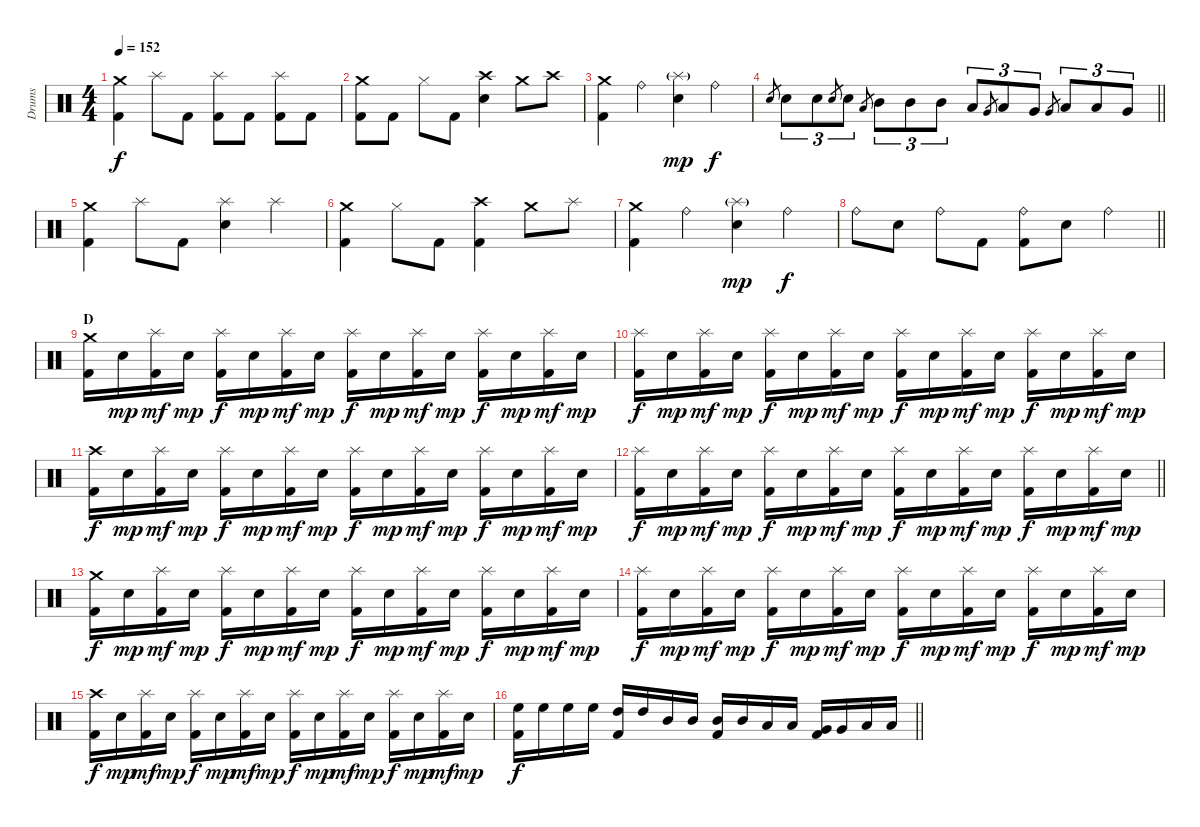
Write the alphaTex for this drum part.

\track ("Drums" "Drums") {instrument percussion}
\staff {score}
\articulation defaults
\ts (4 4)
\section ("" "")
\tempo 152
\clef neutral
\ks c
("Crash medium (hit)" "Kick (hit) 2").4{dy f} "Splash (hit)".8 "Kick (hit) 2".8 ("Splash (hit)" "Kick (hit) 2").8 "Kick (hit) 2".8 ("Splash (hit)" "Kick (hit) 2").8 "Kick (hit) 2".8 |
("Crash medium (hit)" "Kick (hit) 2").8 "Kick (hit) 2".8 "Hi-Hat (closed)".8 "Kick (hit) 2".8 ("Crash high (hit)" "Electric Snare (hit)").4 "Crash medium (hit)".8 "Crash high (hit)".8 |
("Crash medium (hit)" "Kick (hit) 2").4 "Ride (bell)".4 ("Splash (hit)"{g} "Electric Snare (hit)").4{dy mp} "Ride (bell)".4{dy f} |
\barLineRight lightlight "Electric Snare (hit)".8{gr} "Electric Snare (hit)".8{tu (3 2)} "Electric Snare (hit)".8{tu (3 2)} "Electric Snare (hit)".8{gr} "Electric Snare (hit)".8{tu (3 2)} "Low Tom (hit)".8{gr} "Mid Tom (hit)".8{tu (3 2)} "Mid Tom (hit)".8{tu (3 2)} "Mid Tom (hit)".8{tu (3 2)} "Low Tom (hit)".8{tu (3 2)} "Very Low Tom (hit)".8{gr} "Low Tom (hit)".8{tu (3 2)} "Very Low Tom (hit)".8{tu (3 2)} "Very Low Tom (hit)".8{gr} "Low Tom (hit)".8{tu (3 2)} "Low Tom (hit)".8{tu (3 2)} "Very Low Tom (hit)".8{tu (3 2)}
|
\section ("" "")
("Crash medium (hit)" "Kick (hit) 2").4 "Splash (hit)".8 "Kick (hit) 2".8 ("Splash (hit)" "Electric Snare (hit)").4 "Splash (hit)".4 |
("Crash medium (hit)" "Kick (hit) 2").4 "Hi-Hat (closed)".8 "Kick (hit) 2".8 ("Crash high (hit)" "Kick (hit) 2").4 "Crash medium (hit)".8 "Splash (hit)".8 |
("Crash medium (hit)" "Kick (hit) 2").4 "Ride (bell)".4 ("Splash (hit)"{g} "Electric Snare (hit)").4{dy mp} "Ride (bell)".4{dy f} |
\barLineRight lightlight "Ride (bell)".8 "Electric Snare (hit)".8 "Ride (bell)".8 "Kick (hit) 2".8
("Ride (bell)" "Kick (hit) 2").8 "Electric Snare (hit)".8 "Ride (bell)".4 |
\section ("" "D")
("Crash medium (hit)" "Kick (hit) 2").16 "Electric Snare (hit)".16{dy mp} ("Splash (hit)" "Kick (hit) 2").16{dy mf} "Electric Snare (hit)".16{dy mp} ("Splash (hit)" "Kick (hit) 2").16{dy f} "Electric Snare (hit)".16{dy mp} ("Splash (hit)" "Kick (hit) 2").16{dy mf} "Electric Snare (hit)".16{dy mp} ("Splash (hit)" "Kick (hit) 2").16{dy f} "Electric Snare (hit)".16{dy mp} ("Splash (hit)" "Kick (hit) 2").16{dy mf} "Electric Snare (hit)".16{dy mp} ("Splash (hit)" "Kick (hit) 2").16{dy f} "Electric Snare (hit)".16{dy mp} ("Splash (hit)" "Kick (hit) 2").16{dy mf} "Electric Snare (hit)".16{dy mp} |
("Splash (hit)" "Kick (hit) 2").16{dy f} "Electric Snare (hit)".16{dy mp} ("Splash (hit)" "Kick (hit) 2").16{dy mf} "Electric Snare (hit)".16{dy mp} ("Splash (hit)" "Kick (hit) 2").16{dy f} "Electric Snare (hit)".16{dy mp} ("Splash (hit)" "Kick (hit) 2").16{dy mf} "Electric Snare (hit)".16{dy mp} ("Splash (hit)" "Kick (hit) 2").16{dy f} "Electric Snare (hit)".16{dy mp} ("Splash (hit)" "Kick (hit) 2").16{dy mf} "Electric Snare (hit)".16{dy mp} ("Splash (hit)" "Kick (hit) 2").16{dy f} "Electric Snare (hit)".16{dy mp} ("Splash (hit)" "Kick (hit) 2").16{dy mf} "Electric Snare (hit)".16{dy mp} |
("Crash high (hit)" "Kick (hit) 2").16{dy f} "Electric Snare (hit)".16{dy mp} ("Splash (hit)" "Kick (hit) 2").16{dy mf} "Electric Snare (hit)".16{dy mp} ("Splash (hit)" "Kick (hit) 2").16{dy f} "Electric Snare (hit)".16{dy mp} ("Splash (hit)" "Kick (hit) 2").16{dy mf} "Electric Snare (hit)".16{dy mp} ("Splash (hit)" "Kick (hit) 2").16{dy f} "Electric Snare (hit)".16{dy mp} ("Splash (hit)" "Kick (hit) 2").16{dy mf} "Electric Snare (hit)".16{dy mp} ("Splash (hit)" "Kick (hit) 2").16{dy f} "Electric Snare (hit)".16{dy mp} ("Splash (hit)" "Kick (hit) 2").16{dy mf} "Electric Snare (hit)".16{dy mp} |
\barLineRight lightlight
("Splash (hit)" "Kick (hit) 2").16{dy f} "Electric Snare (hit)".16{dy mp} ("Splash (hit)" "Kick (hit) 2").16{dy mf} "Electric Snare (hit)".16{dy mp} ("Splash (hit)" "Kick (hit) 2").16{dy f} "Electric Snare (hit)".16{dy mp} ("Splash (hit)" "Kick (hit) 2").16{dy mf} "Electric Snare (hit)".16{dy mp} ("Splash (hit)" "Kick (hit) 2").16{dy f} "Electric Snare (hit)".16{dy mp} ("Splash (hit)" "Kick (hit) 2").16{dy mf} "Electric Snare (hit)".16{dy mp} ("Splash (hit)" "Kick (hit) 2").16{dy f} "Electric Snare (hit)".16{dy mp} ("Splash (hit)" "Kick (hit) 2").16{dy mf} "Electric Snare (hit)".16{dy mp} |
\section ("" "")
("Crash medium (hit)" "Kick (hit) 2").16{dy f} "Electric Snare (hit)".16{dy mp} ("Splash (hit)" "Kick (hit) 2").16{dy mf} "Electric Snare (hit)".16{dy mp} ("Splash (hit)" "Kick (hit) 2").16{dy f} "Electric Snare (hit)".16{dy mp} ("Splash (hit)" "Kick (hit) 2").16{dy mf} "Electric Snare (hit)".16{dy mp} ("Splash (hit)" "Kick (hit) 2").16{dy f} "Electric Snare (hit)".16{dy mp} ("Splash (hit)" "Kick (hit) 2").16{dy mf} "Electric Snare (hit)".16{dy mp} ("Splash (hit)" "Kick (hit) 2").16{dy f} "Electric Snare (hit)".16{dy mp} ("Splash (hit)" "Kick (hit) 2").16{dy mf} "Electric Snare (hit)".16{dy mp} |
("Splash (hit)" "Kick (hit) 2").16{dy f} "Electric Snare (hit)".16{dy mp} ("Splash (hit)" "Kick (hit) 2").16{dy mf} "Electric Snare (hit)".16{dy mp} ("Splash (hit)" "Kick (hit) 2").16{dy f} "Electric Snare (hit)".16{dy mp} ("Splash (hit)" "Kick (hit) 2").16{dy mf} "Electric Snare (hit)".16{dy mp} ("Splash (hit)" "Kick (hit) 2").16{dy f} "Electric Snare (hit)".16{dy mp} ("Splash (hit)" "Kick (hit) 2").16{dy mf} "Electric Snare (hit)".16{dy mp} ("Splash (hit)" "Kick (hit) 2").16{dy f} "Electric Snare (hit)".16{dy mp} ("Splash (hit)" "Kick (hit) 2").16{dy mf} "Electric Snare (hit)".16{dy mp} |
("Crash high (hit)" "Kick (hit) 2").16{dy f} "Electric Snare (hit)".16{dy mp} ("Splash (hit)" "Kick (hit) 2").16{dy mf} "Electric Snare (hit)".16{dy mp} ("Splash (hit)" "Kick (hit) 2").16{dy f} "Electric Snare (hit)".16{dy mp} ("Splash (hit)" "Kick (hit) 2").16{dy mf} "Electric Snare (hit)".16{dy mp} ("Splash (hit)" "Kick (hit) 2").16{dy f} "Electric Snare (hit)".16{dy mp} ("Splash (hit)" "Kick (hit) 2").16{dy mf} "Electric Snare (hit)".16{dy mp} ("Splash (hit)" "Kick (hit) 2").16{dy f} "Electric Snare (hit)".16{dy mp} ("Splash (hit)" "Kick (hit) 2").16{dy mf} "Electric Snare (hit)".16{dy mp} |
\barLineRight lightlight
("High Floor Tom (hit)" "Kick (hit) 2").16{dy f} "High Floor Tom (hit)".16 "High Floor Tom (hit)".16 "High Floor Tom (hit)".16 ("High Tom (hit)" "Kick (hit) 2").16 "High Tom (hit)".16 "Mid Tom (hit)".16 "Mid Tom (hit)".16 ("Mid Tom (hit)" "Kick (hit) 2").16 "Mid Tom (hit)".16 "Low Tom (hit)".16 "Low Tom (hit)".16 ("Very Low Tom (hit)" "Kick (hit) 2").16 "Very Low Tom (hit)".16 "Low Floor Tom (hit)".16 "Low Floor Tom (hit)".16
